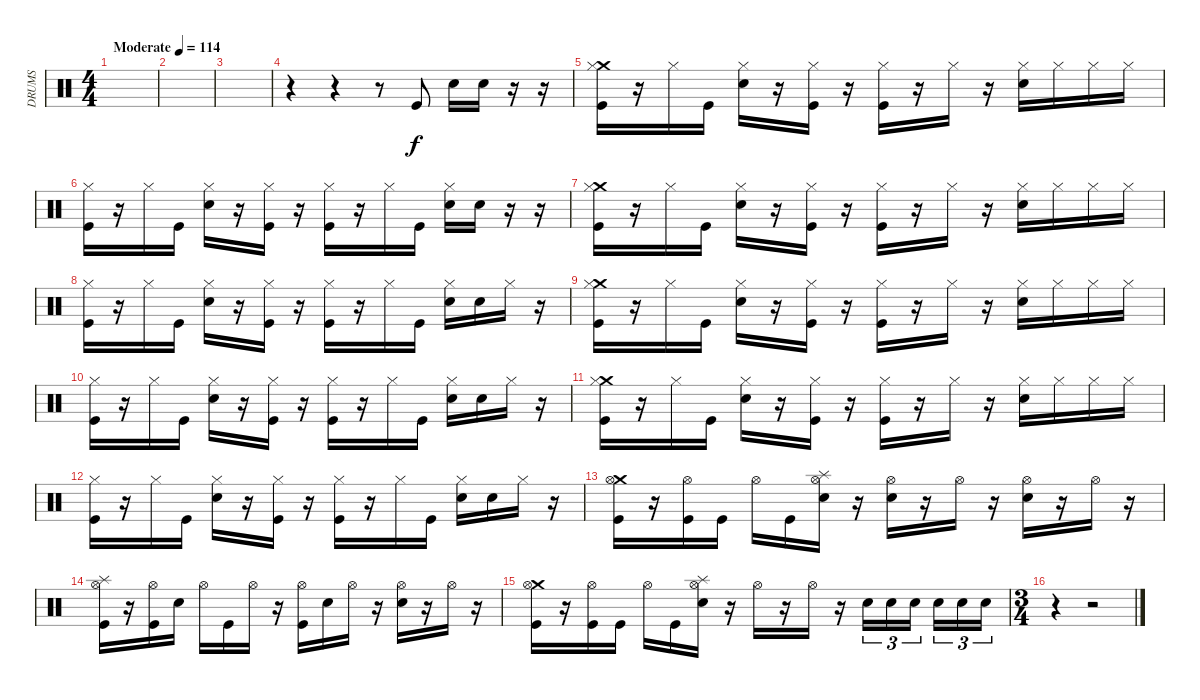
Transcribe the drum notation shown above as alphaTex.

\track ("DRUMS" "DRUMS") {instrument percussion}
\staff {score}
\articulation defaults
\ts (4 4)
\tempo (114 "Moderate")
\clef neutral
\ks c
|
|
|
r.4 r.4 r.8 "Kick (hit)".8 "Electric Snare (hit)".16 "Electric Snare (hit)".16 r.16 r.16 |
("Crash medium (hit)" "Hi-Hat (closed)" "Kick (hit)").16 r.16 "Hi-Hat (closed)".16 "Kick (hit)".16 ("Hi-Hat (closed)" "Electric Snare (hit)").16 r.16 ("Hi-Hat (closed)" "Kick (hit)").16 r.16 ("Hi-Hat (closed)" "Kick (hit)").16 r.16 "Hi-Hat (closed)".16 r.16 ("Hi-Hat (closed)" "Electric Snare (hit)").16 "Hi-Hat (closed)".16 "Hi-Hat (closed)".16 "Hi-Hat (closed)".16 |
("Hi-Hat (closed)" "Kick (hit)").16 r.16 "Hi-Hat (closed)".16 "Kick (hit)".16 ("Hi-Hat (closed)" "Electric Snare (hit)").16 r.16 ("Hi-Hat (closed)" "Kick (hit)").16 r.16 ("Hi-Hat (closed)" "Kick (hit)").16 r.16 "Hi-Hat (closed)".16 "Kick (hit)".16 ("Hi-Hat (closed)" "Electric Snare (hit)").16 "Electric Snare (hit)".16 r.16 r.16 |
("Crash medium (hit)" "Hi-Hat (closed)" "Kick (hit)").16 r.16 "Hi-Hat (closed)".16 "Kick (hit)".16 ("Hi-Hat (closed)" "Electric Snare (hit)").16 r.16 ("Hi-Hat (closed)" "Kick (hit)").16 r.16 ("Hi-Hat (closed)" "Kick (hit)").16 r.16 "Hi-Hat (closed)".16 r.16 ("Hi-Hat (closed)" "Electric Snare (hit)").16 "Hi-Hat (closed)".16 "Hi-Hat (closed)".16 "Hi-Hat (closed)".16 |
("Hi-Hat (closed)" "Kick (hit)").16 r.16 "Hi-Hat (closed)".16 "Kick (hit)".16 ("Hi-Hat (closed)" "Electric Snare (hit)").16 r.16 ("Hi-Hat (closed)" "Kick (hit)").16 r.16 ("Hi-Hat (closed)" "Kick (hit)").16 r.16 "Hi-Hat (closed)".16 "Kick (hit)".16 ("Hi-Hat (closed)" "Electric Snare (hit)").16 "Electric Snare (hit)".16 "Hi-Hat (closed)".16 r.16 |
("Crash medium (hit)" "Hi-Hat (closed)" "Kick (hit)").16 r.16 "Hi-Hat (closed)".16 "Kick (hit)".16 ("Hi-Hat (closed)" "Electric Snare (hit)").16 r.16 ("Hi-Hat (closed)" "Kick (hit)").16 r.16 ("Hi-Hat (closed)" "Kick (hit)").16 r.16 "Hi-Hat (closed)".16 r.16 ("Hi-Hat (closed)" "Electric Snare (hit)").16 "Hi-Hat (closed)".16 "Hi-Hat (closed)".16 "Hi-Hat (closed)".16 |
("Hi-Hat (closed)" "Kick (hit)").16 r.16 "Hi-Hat (closed)".16 "Kick (hit)".16 ("Hi-Hat (closed)" "Electric Snare (hit)").16 r.16 ("Hi-Hat (closed)" "Kick (hit)").16 r.16 ("Hi-Hat (closed)" "Kick (hit)").16 r.16 "Hi-Hat (closed)".16 "Kick (hit)".16 ("Hi-Hat (closed)" "Electric Snare (hit)").16 "Electric Snare (hit)".16 "Hi-Hat (closed)".16 r.16 |
("Crash medium (hit)" "Hi-Hat (closed)" "Kick (hit)").16 r.16 "Hi-Hat (closed)".16 "Kick (hit)".16 ("Hi-Hat (closed)" "Electric Snare (hit)").16 r.16 ("Hi-Hat (closed)" "Kick (hit)").16 r.16 ("Hi-Hat (closed)" "Kick (hit)").16 r.16 "Hi-Hat (closed)".16 r.16 ("Hi-Hat (closed)" "Electric Snare (hit)").16 "Hi-Hat (closed)".16 "Hi-Hat (closed)".16 "Hi-Hat (closed)".16 |
("Hi-Hat (closed)" "Kick (hit)").16 r.16 "Hi-Hat (closed)".16 "Kick (hit)".16 ("Hi-Hat (closed)" "Electric Snare (hit)").16 r.16 ("Hi-Hat (closed)" "Kick (hit)").16 r.16 ("Hi-Hat (closed)" "Kick (hit)").16 r.16 "Hi-Hat (closed)".16 "Kick (hit)".16 ("Hi-Hat (closed)" "Electric Snare (hit)").16 "Electric Snare (hit)".16 "Hi-Hat (closed)".16 r.16 |
("Crash medium (hit)" "Hi-Hat (open)" "Kick (hit)").16 r.16 ("Hi-Hat (open)" "Kick (hit)").16 "Kick (hit)".16 "Hi-Hat (open)".16 "Kick (hit)".16 ("Splash (hit)" "Hi-Hat (open)" "Electric Snare (hit)").16 r.16 ("Hi-Hat (open)" "Electric Snare (hit)").16 r.16 "Hi-Hat (open)".16 r.16 ("Hi-Hat (open)" "Electric Snare (hit)").16 r.16 "Hi-Hat (open)".16 r.16 |
("Splash (hit)" "Hi-Hat (open)" "Kick (hit)").16 r.16 ("Hi-Hat (open)" "Kick (hit)").16 "Electric Snare (hit)".16 "Hi-Hat (open)".16 "Kick (hit)".16 "Hi-Hat (open)".16 r.16 ("Hi-Hat (open)" "Kick (hit)").16 "Electric Snare (hit)".16 "Hi-Hat (open)".16 r.16 ("Hi-Hat (open)" "Electric Snare (hit)").16 r.16 "Hi-Hat (open)".16 r.16 |
("Crash medium (hit)" "Hi-Hat (open)" "Kick (hit)").16 r.16 ("Hi-Hat (open)" "Kick (hit)").16 "Kick (hit)".16 "Hi-Hat (open)".16 "Kick (hit)".16 ("Splash (hit)" "Hi-Hat (open)" "Electric Snare (hit)").16 r.16 "Hi-Hat (open)".16 r.16 "Hi-Hat (open)".16 r.16 "Electric Snare (hit)".16{tu (3 2)} "Electric Snare (hit)".16{tu (3 2)} "Electric Snare (hit)".16{tu (3 2) beam splitsecondary} "Electric Snare (hit)".16{tu (3 2)} "Electric Snare (hit)".16{tu (3 2)} "Electric Snare (hit)".16{tu (3 2)} |
\ts (3 4)
r.4 r.2
